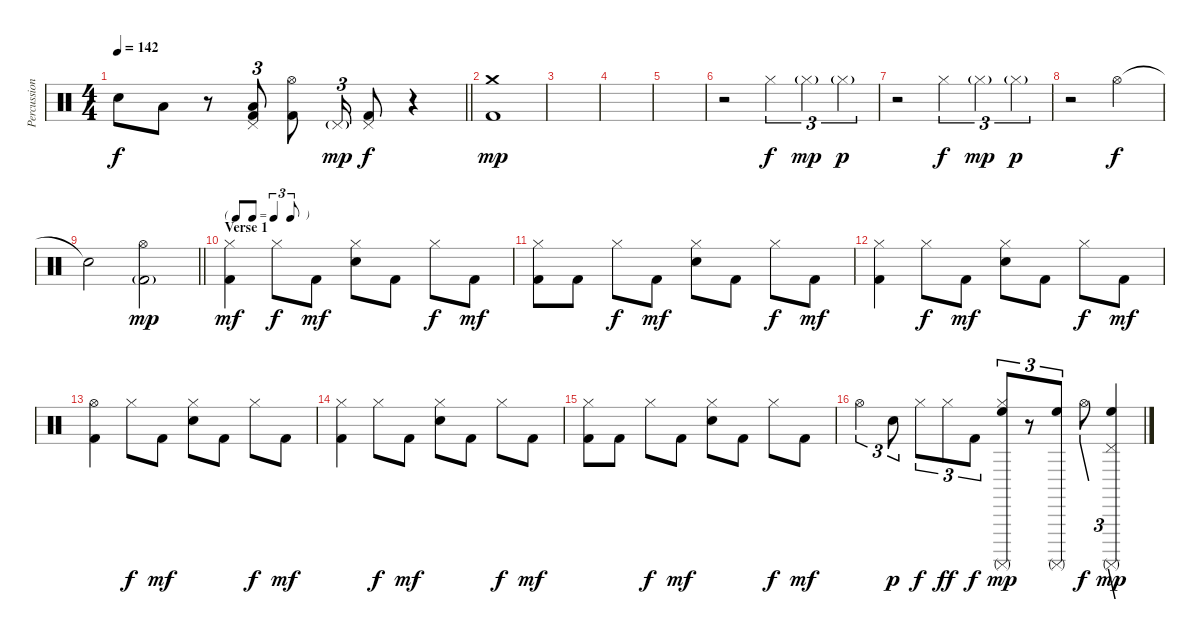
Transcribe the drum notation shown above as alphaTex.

\track ("Percussion" "Percussion") {instrument percussion}
\staff {score}
\articulation defaults
\ts (4 4)
\tempo 142
\clef neutral
\barLineRight lightlight
\ks c "Snare (hit)"{t}.8{dy f} "Low Floor Tom (hit)".8
r.8 ("Pedal Hi-Hat (hit)" "Low Floor Tom (hit)" "Kick (hit) 2").8{tu (3 2)} ("Hi-Hat (open)" "Kick (hit) 2").8 "Pedal Hi-Hat (hit)"{g}.16{tu (3 2) dy mp} ("Pedal Hi-Hat (hit)" "Kick (hit) 2").8{dy f} r.4 |
\section ("" "")
("Crash medium (hit)" "Kick (hit) 2").1{dy mp} |
|
|
|
r.2 "Hi-Hat (closed)".4{tu (3 2) dy f} "Hi-Hat (closed)"{g}.4{tu (3 2) dy mp} "Hi-Hat (closed)"{g}.4{tu (3 2) dy p} |
r.2 "Hi-Hat (closed)".4{tu (3 2) dy f} "Hi-Hat (closed)"{g}.4{tu (3 2) dy mp} "Hi-Hat (closed)"{g}.4{tu (3 2) dy p} |
r.2 "Hi-Hat (open)".2{dy f} |
\barLineRight lightlight "Snare (hit)"{t}.2
("Hi-Hat (open)" "Kick (hit) 2"{g}).2{dy mp} |
\tf triplet8th
\section ("" "Verse 1")
("Hi-Hat (closed)" "Kick (hit) 2").4{dy mf volume 11} "Hi-Hat (closed)".8{dy f} "Kick (hit) 2".8{dy mf} ("Hi-Hat (closed)" "Electric Snare (hit)").8 "Kick (hit) 2".8 "Hi-Hat (closed)".8{dy f} "Kick (hit) 2".8{dy mf} |
("Hi-Hat (closed)" "Kick (hit) 2").8 "Kick (hit) 2".8 "Hi-Hat (closed)".8{dy f} "Kick (hit) 2".8{dy mf} ("Hi-Hat (closed)" "Electric Snare (hit)").8 "Kick (hit) 2".8 "Hi-Hat (closed)".8{dy f} "Kick (hit) 2".8{dy mf} |
("Hi-Hat (closed)" "Kick (hit) 2").4 "Hi-Hat (closed)".8{dy f} "Kick (hit) 2".8{dy mf} ("Hi-Hat (closed)" "Electric Snare (hit)").8 "Kick (hit) 2".8 "Hi-Hat (closed)".8{dy f} "Kick (hit) 2".8{dy mf} |
("Hi-Hat (open)" "Kick (hit) 2").4 "Hi-Hat (closed)".8{dy f} "Kick (hit) 2".8{dy mf} ("Hi-Hat (closed)" "Electric Snare (hit)").8 "Kick (hit) 2".8 "Hi-Hat (closed)".8{dy f} "Kick (hit) 2".8{dy mf} |
("Hi-Hat (closed)" "Kick (hit) 2").4 "Hi-Hat (closed)".8{dy f} "Kick (hit) 2".8{dy mf} ("Hi-Hat (closed)" "Electric Snare (hit)").8 "Kick (hit) 2".8 "Hi-Hat (closed)".8{dy f} "Kick (hit) 2".8{dy mf} |
("Hi-Hat (closed)" "Kick (hit) 2").8 "Kick (hit) 2".8 "Hi-Hat (closed)".8{dy f} "Kick (hit) 2".8{dy mf} ("Hi-Hat (closed)" "Electric Snare (hit)").8 "Kick (hit) 2".8 "Hi-Hat (closed)".8{dy f} "Kick (hit) 2".8{dy mf} |
"Hi-Hat (open)".4{tu (3 2)} "Electric Snare (hit)".8{tu (3 2) dy p} "Hi-Hat (closed)".8{tu (3 2) dy f} "Hi-Hat (closed)".8{tu (3 2) dy ff} "Kick (hit) 2".8{tu (3 2) dy f} ("Hi-Hat (closed)" "High Floor Tom (hit)" "Surdo (mute)").8{tu (3 2) dy mp} r.8{tu (3 2)} ("High Floor Tom (hit)" "Surdo (mute)").8{tu (3 2)} "Hi-Hat (open)".8{tu (3 2) dy f} ("Pedal Hi-Hat (hit)" "High Floor Tom (hit)" "Surdo (mute)").4{tu (3 2) dy mp}
